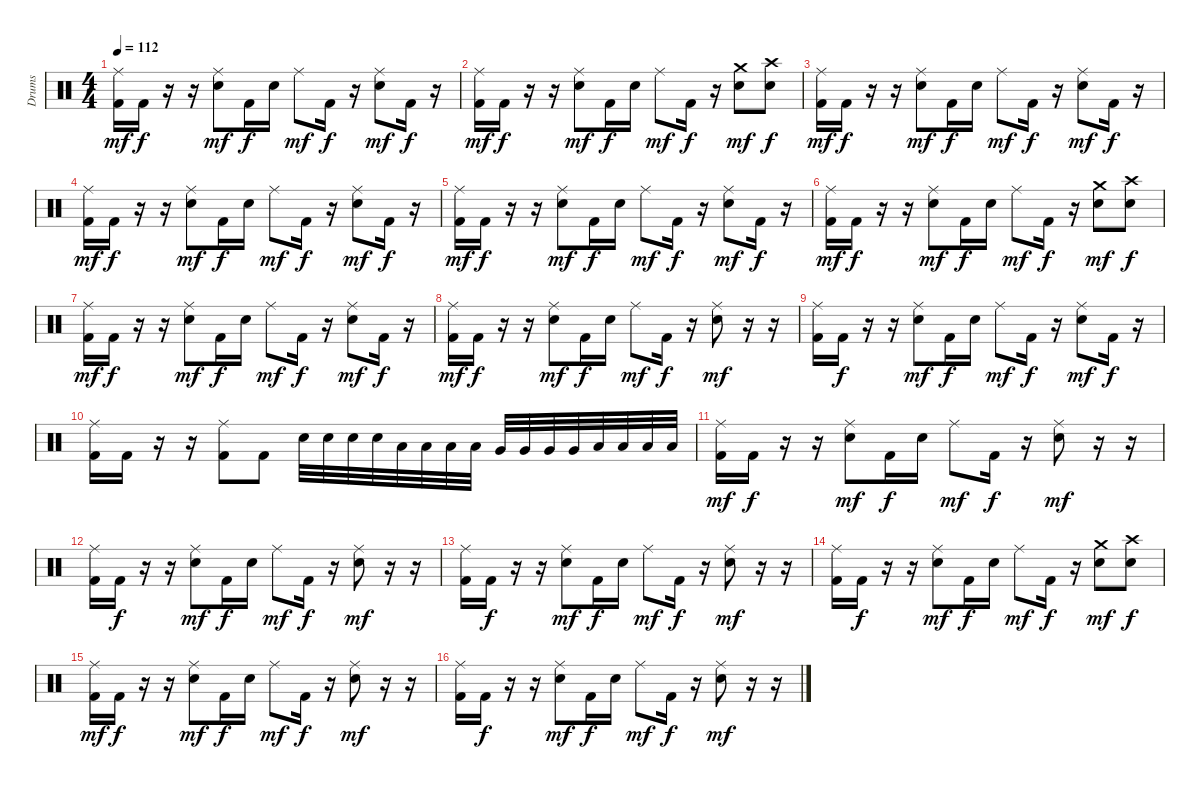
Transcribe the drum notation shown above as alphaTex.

\track ("Drums" "Drums") {instrument percussion}
\staff {score}
\articulation defaults
\ts (4 4)
\tempo 112
\clef neutral
\ks c
("Ride (middle)" "Kick (hit) 2").16{dy mf} "Kick (hit) 2".16{dy f} r.16 r.16 ("Ride (middle)" "Electric Snare (hit)").8{dy mf} "Kick (hit) 2".16{dy f} "Electric Snare (hit)".16 "Ride (middle)".8{dy mf} "Kick (hit) 2".16{dy f} r.16 ("Ride (middle)" "Electric Snare (hit)").8{dy mf} "Kick (hit) 2".16{dy f} r.16 |
("Ride (middle)" "Kick (hit) 2").16{dy mf} "Kick (hit) 2".16{dy f} r.16 r.16 ("Ride (middle)" "Electric Snare (hit)").8{dy mf} "Kick (hit) 2".16{dy f} "Electric Snare (hit)".16 "Ride (middle)".8{dy mf} "Kick (hit) 2".16{dy f} r.16 ("Crash medium (hit)" "Electric Snare (hit)").8{dy mf} ("Crash high (hit)" "Electric Snare (hit)").8{dy f} |
("Ride (middle)" "Kick (hit) 2").16{dy mf} "Kick (hit) 2".16{dy f} r.16 r.16 ("Ride (middle)" "Electric Snare (hit)").8{dy mf} "Kick (hit) 2".16{dy f} "Electric Snare (hit)".16 "Ride (middle)".8{dy mf} "Kick (hit) 2".16{dy f} r.16 ("Ride (middle)" "Electric Snare (hit)").8{dy mf} "Kick (hit) 2".16{dy f} r.16 |
("Ride (middle)" "Kick (hit) 2").16{dy mf} "Kick (hit) 2".16{dy f} r.16 r.16 ("Ride (middle)" "Electric Snare (hit)").8{dy mf} "Kick (hit) 2".16{dy f} "Electric Snare (hit)".16 "Ride (middle)".8{dy mf} "Kick (hit) 2".16{dy f} r.16 ("Ride (middle)" "Electric Snare (hit)").8{dy mf} "Kick (hit) 2".16{dy f} r.16 |
("Ride (middle)" "Kick (hit) 2").16{dy mf} "Kick (hit) 2".16{dy f} r.16 r.16 ("Ride (middle)" "Electric Snare (hit)").8{dy mf} "Kick (hit) 2".16{dy f} "Electric Snare (hit)".16 "Ride (middle)".8{dy mf} "Kick (hit) 2".16{dy f} r.16 ("Ride (middle)" "Electric Snare (hit)").8{dy mf} "Kick (hit) 2".16{dy f} r.16 |
("Ride (middle)" "Kick (hit) 2").16{dy mf} "Kick (hit) 2".16{dy f} r.16 r.16 ("Ride (middle)" "Electric Snare (hit)").8{dy mf} "Kick (hit) 2".16{dy f} "Electric Snare (hit)".16 "Ride (middle)".8{dy mf} "Kick (hit) 2".16{dy f} r.16 ("Crash medium (hit)" "Electric Snare (hit)").8{dy mf} ("Crash high (hit)" "Electric Snare (hit)").8{dy f} |
("Ride (middle)" "Kick (hit) 2").16{dy mf} "Kick (hit) 2".16{dy f} r.16 r.16 ("Ride (middle)" "Electric Snare (hit)").8{dy mf} "Kick (hit) 2".16{dy f} "Electric Snare (hit)".16 "Ride (middle)".8{dy mf} "Kick (hit) 2".16{dy f} r.16 ("Ride (middle)" "Electric Snare (hit)").8{dy mf} "Kick (hit) 2".16{dy f} r.16 |
("Ride (middle)" "Kick (hit) 2").16{dy mf} "Kick (hit) 2".16{dy f} r.16 r.16 ("Ride (middle)" "Electric Snare (hit)").8{dy mf} "Kick (hit) 2".16{dy f} "Electric Snare (hit)".16 "Ride (middle)".8{dy mf} "Kick (hit) 2".16{dy f} r.16 ("Ride (middle)" "Electric Snare (hit)").8{dy mf} r.16 r.16 |
("Ride (middle)" "Kick (hit) 2").16 "Kick (hit) 2".16{dy f} r.16 r.16 ("Ride (middle)" "Electric Snare (hit)").8{dy mf} "Kick (hit) 2".16{dy f} "Electric Snare (hit)".16 "Ride (middle)".8{dy mf} "Kick (hit) 2".16{dy f} r.16 ("Ride (middle)" "Electric Snare (hit)").8{dy mf} "Kick (hit) 2".16{dy f} r.16 |
("Ride (middle)" "Kick (hit) 2").16 "Kick (hit) 2".16 r.16 r.16 ("Ride (middle)" "Kick (hit) 2").8 "Kick (hit) 2".8 "Electric Snare (hit)".32 "Electric Snare (hit)".32 "Electric Snare (hit)".32 "Electric Snare (hit)".32 "Low Tom (hit)".32 "Low Tom (hit)".32 "Low Tom (hit)".32 "Low Tom (hit)".32 "Very Low Tom (hit)".32 "Very Low Tom (hit)".32 "Very Low Tom (hit)".32 "Very Low Tom (hit)".32 "Low Floor Tom (hit)".32 "Low Floor Tom (hit)".32 "Low Floor Tom (hit)".32 "Low Floor Tom (hit)".32 |
("Ride (middle)" "Kick (hit) 2").16{dy mf} "Kick (hit) 2".16{dy f} r.16 r.16 ("Ride (middle)" "Electric Snare (hit)").8{dy mf} "Kick (hit) 2".16{dy f} "Electric Snare (hit)".16 "Ride (middle)".8{dy mf} "Kick (hit) 2".16{dy f} r.16 ("Ride (middle)" "Electric Snare (hit)").8{dy mf} r.16 r.16 |
("Ride (middle)" "Kick (hit) 2").16 "Kick (hit) 2".16{dy f} r.16 r.16 ("Ride (middle)" "Electric Snare (hit)").8{dy mf} "Kick (hit) 2".16{dy f} "Electric Snare (hit)".16 "Ride (middle)".8{dy mf} "Kick (hit) 2".16{dy f} r.16 ("Ride (middle)" "Electric Snare (hit)").8{dy mf} r.16 r.16 |
("Ride (middle)" "Kick (hit) 2").16 "Kick (hit) 2".16{dy f} r.16 r.16 ("Ride (middle)" "Electric Snare (hit)").8{dy mf} "Kick (hit) 2".16{dy f} "Electric Snare (hit)".16 "Ride (middle)".8{dy mf} "Kick (hit) 2".16{dy f} r.16 ("Ride (middle)" "Electric Snare (hit)").8{dy mf} r.16 r.16 |
("Ride (middle)" "Kick (hit) 2").16 "Kick (hit) 2".16{dy f} r.16 r.16 ("Ride (middle)" "Electric Snare (hit)").8{dy mf} "Kick (hit) 2".16{dy f} "Electric Snare (hit)".16 "Ride (middle)".8{dy mf} "Kick (hit) 2".16{dy f} r.16 ("Crash medium (hit)" "Electric Snare (hit)").8{dy mf} ("Crash high (hit)" "Electric Snare (hit)").8{dy f} |
("Ride (middle)" "Kick (hit) 2").16{dy mf} "Kick (hit) 2".16{dy f} r.16 r.16 ("Ride (middle)" "Electric Snare (hit)").8{dy mf} "Kick (hit) 2".16{dy f} "Electric Snare (hit)".16 "Ride (middle)".8{dy mf} "Kick (hit) 2".16{dy f} r.16 ("Ride (middle)" "Electric Snare (hit)").8{dy mf} r.16 r.16 |
("Ride (middle)" "Kick (hit) 2").16 "Kick (hit) 2".16{dy f} r.16 r.16 ("Ride (middle)" "Electric Snare (hit)").8{dy mf} "Kick (hit) 2".16{dy f} "Electric Snare (hit)".16 "Ride (middle)".8{dy mf} "Kick (hit) 2".16{dy f} r.16 ("Ride (middle)" "Electric Snare (hit)").8{dy mf} r.16 r.16
